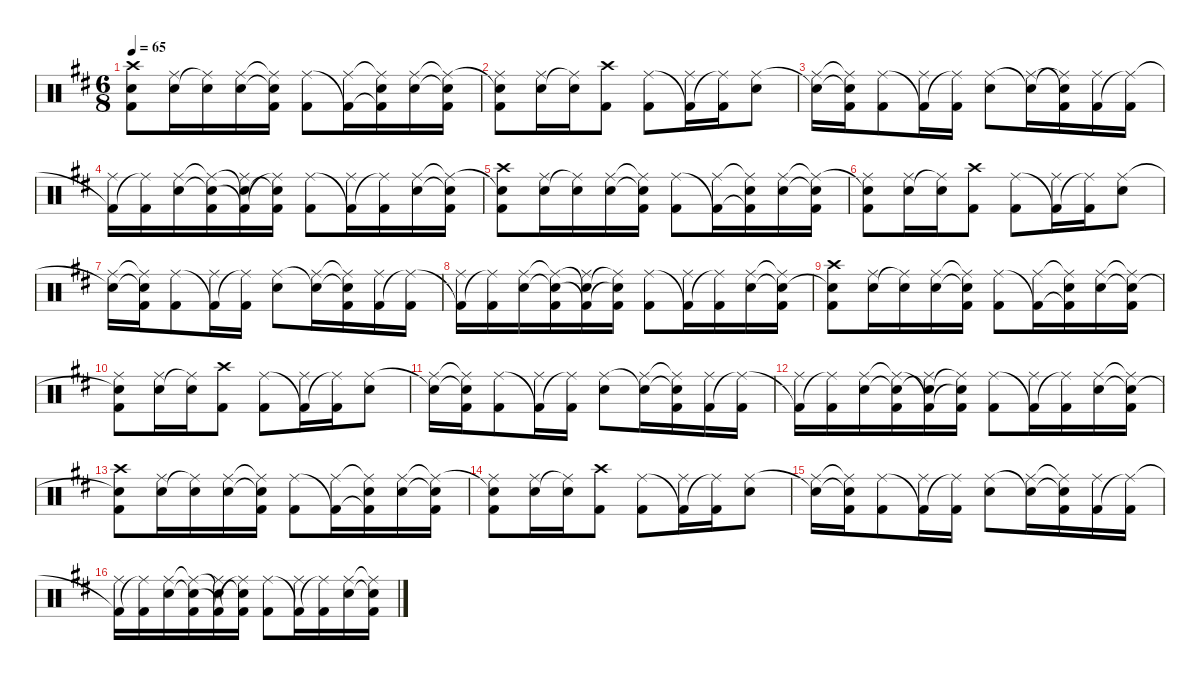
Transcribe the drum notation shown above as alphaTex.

\hideDynamics
\bracketExtendMode nobrackets
\singleTrackTrackNamePolicy hidden
\multiTrackTrackNamePolicy hidden
\firstSystemTrackNameMode fullname
\firstSystemTrackNameOrientation horizontal
\otherSystemsTrackNameOrientation horizontal
\track ("Drums" "drm.") {instrument percussion}
\staff {score}
\articulation defaults
\ts (6 8)
\tempo 65
\clef neutral
\ks bminor
("Snare (hit) 2"{t acc forcenatural} "Kick (hit) 2"{acc forcenatural} "Crash high (hit)"{acc #}).8{dy ff beam Down} ("Snare (hit) 2"{acc forcenatural} "Ride (middle)"{acc #}).16{beam Down} ("Ride (middle)"{t acc #} "Snare (hit) 2"{acc forcenatural}).16{beam Down} ("Snare (hit) 2"{acc forcenatural} "Ride (middle)"{acc #}).16{beam Down} ("Snare (hit) 2"{t acc forcenatural} "Ride (middle)"{t acc #} "Kick (hit) 2"{acc forcenatural}).16{beam Down} ("Ride (middle)"{acc #} "Kick (hit) 2"{acc forcenatural}).8{beam Down} ("Kick (hit) 2"{t acc forcenatural} "Ride (middle)"{acc #}).16{beam Down} ("Kick (hit) 2"{t acc forcenatural} "Ride (middle)"{t acc #} "Snare (hit) 2"{acc forcenatural}).16{beam Down} ("Ride (middle)"{acc #} "Snare (hit) 2"{acc forcenatural}).16{beam Down} ("Ride (middle)"{t acc #} "Snare (hit) 2"{t acc forcenatural} "Kick (hit) 2"{acc forcenatural}).16{beam Down} |
("Snare (hit) 2"{t acc forcenatural} "Kick (hit) 2"{acc forcenatural} "Ride (middle)"{acc #}).8{beam Down} ("Snare (hit) 2"{acc forcenatural} "Ride (middle)"{acc #}).16{beam Down} ("Ride (middle)"{t acc #} "Snare (hit) 2"{acc forcenatural}).16{beam Down} ("Kick (hit) 2"{acc forcenatural} "Crash high (hit)"{acc #}).8{beam Down} ("Ride (middle)"{acc #} "Kick (hit) 2"{acc forcenatural}).8{beam Down} ("Kick (hit) 2"{t acc forcenatural} "Ride (middle)"{acc #}).16{beam Down} ("Ride (middle)"{t acc #} "Kick (hit) 2"{acc forcenatural}).16{beam Down} ("Ride (middle)"{acc #} "Snare (hit) 2"{acc forcenatural}).8{beam Down} |
("Snare (hit) 2"{t acc forcenatural} "Ride (middle)"{acc #}).16{beam Down} ("Snare (hit) 2"{t acc forcenatural} "Ride (middle)"{t acc #} "Kick (hit) 2"{acc forcenatural}).16{beam Down} ("Ride (middle)"{acc #} "Kick (hit) 2"{acc forcenatural}).8{beam Down} ("Kick (hit) 2"{t acc forcenatural} "Ride (middle)"{acc #}).16{beam Down} ("Ride (middle)"{t acc #} "Kick (hit) 2"{acc forcenatural}).16{beam Down} ("Ride (middle)"{acc #} "Snare (hit) 2"{acc forcenatural}).8{beam Down} ("Snare (hit) 2"{t acc forcenatural} "Ride (middle)"{acc #}).16{beam Down} ("Ride (middle)"{t acc #} "Snare (hit) 2"{t acc forcenatural} "Kick (hit) 2"{acc forcenatural}).16{beam Down} ("Kick (hit) 2"{acc forcenatural} "Ride (middle)"{acc #}).16{beam Down} ("Ride (middle)"{t acc #} "Kick (hit) 2"{acc forcenatural}).16{beam Down} |
("Kick (hit) 2"{t acc forcenatural} "Ride (middle)"{acc #}).16{beam Down} ("Ride (middle)"{t acc #} "Kick (hit) 2"{acc forcenatural}).16{beam Down} ("Ride (middle)"{acc #} "Snare (hit) 2"{acc forcenatural}).16{beam Down} ("Ride (middle)"{t acc #} "Snare (hit) 2"{t acc forcenatural} "Kick (hit) 2"{acc forcenatural}).16{beam Down} ("Snare (hit) 2"{t acc forcenatural} "Kick (hit) 2"{t acc forcenatural} "Ride (middle)"{acc #}).16{beam Down} ("Snare (hit) 2"{t acc forcenatural} "Ride (middle)"{t acc #} "Kick (hit) 2"{acc forcenatural}).16{beam Down} ("Ride (middle)"{acc #} "Kick (hit) 2"{acc forcenatural}).8{beam Down} ("Kick (hit) 2"{t acc forcenatural} "Ride (middle)"{acc #}).16{beam Down} ("Ride (middle)"{t acc #} "Kick (hit) 2"{acc forcenatural}).16{beam Down} ("Ride (middle)"{acc #} "Snare (hit) 2"{acc forcenatural}).16{beam Down} ("Ride (middle)"{t acc #} "Snare (hit) 2"{t acc forcenatural} "Kick (hit) 2"{acc forcenatural}).16{beam Down} |
("Snare (hit) 2"{t acc forcenatural} "Kick (hit) 2"{acc forcenatural} "Crash high (hit)"{acc #}).8{beam Down} ("Snare (hit) 2"{acc forcenatural} "Ride (middle)"{acc #}).16{beam Down} ("Ride (middle)"{t acc #} "Snare (hit) 2"{acc forcenatural}).16{beam Down} ("Snare (hit) 2"{acc forcenatural} "Ride (middle)"{acc #}).16{beam Down} ("Snare (hit) 2"{t acc forcenatural} "Ride (middle)"{t acc #} "Kick (hit) 2"{acc forcenatural}).16{beam Down} ("Ride (middle)"{acc #} "Kick (hit) 2"{acc forcenatural}).8{beam Down} ("Kick (hit) 2"{t acc forcenatural} "Ride (middle)"{acc #}).16{beam Down} ("Kick (hit) 2"{t acc forcenatural} "Ride (middle)"{t acc #} "Snare (hit) 2"{acc forcenatural}).16{beam Down} ("Ride (middle)"{acc #} "Snare (hit) 2"{acc forcenatural}).16{beam Down} ("Ride (middle)"{t acc #} "Snare (hit) 2"{t acc forcenatural} "Kick (hit) 2"{acc forcenatural}).16{beam Down} |
("Snare (hit) 2"{t acc forcenatural} "Kick (hit) 2"{acc forcenatural} "Ride (middle)"{acc #}).8{beam Down} ("Snare (hit) 2"{acc forcenatural} "Ride (middle)"{acc #}).16{beam Down} ("Ride (middle)"{t acc #} "Snare (hit) 2"{acc forcenatural}).16{beam Down} ("Kick (hit) 2"{acc forcenatural} "Crash high (hit)"{acc #}).8{beam Down} ("Ride (middle)"{acc #} "Kick (hit) 2"{acc forcenatural}).8{beam Down} ("Kick (hit) 2"{t acc forcenatural} "Ride (middle)"{acc #}).16{beam Down} ("Ride (middle)"{t acc #} "Kick (hit) 2"{acc forcenatural}).16{beam Down} ("Ride (middle)"{acc #} "Snare (hit) 2"{acc forcenatural}).8{beam Down} |
("Snare (hit) 2"{t acc forcenatural} "Ride (middle)"{acc #}).16{beam Down} ("Snare (hit) 2"{t acc forcenatural} "Ride (middle)"{t acc #} "Kick (hit) 2"{acc forcenatural}).16{beam Down} ("Ride (middle)"{acc #} "Kick (hit) 2"{acc forcenatural}).8{beam Down} ("Kick (hit) 2"{t acc forcenatural} "Ride (middle)"{acc #}).16{beam Down} ("Ride (middle)"{t acc #} "Kick (hit) 2"{acc forcenatural}).16{beam Down} ("Ride (middle)"{acc #} "Snare (hit) 2"{acc forcenatural}).8{beam Down} ("Snare (hit) 2"{t acc forcenatural} "Ride (middle)"{acc #}).16{beam Down} ("Snare (hit) 2"{t acc forcenatural} "Ride (middle)"{t acc #} "Kick (hit) 2"{acc forcenatural}).16{beam Down} ("Kick (hit) 2"{acc forcenatural} "Ride (middle)"{acc #}).16{beam Down} ("Ride (middle)"{t acc #} "Kick (hit) 2"{acc forcenatural}).16{beam Down} |
("Kick (hit) 2"{t acc forcenatural} "Ride (middle)"{acc #}).16{beam Down} ("Ride (middle)"{t acc #} "Kick (hit) 2"{acc forcenatural}).16{beam Down} ("Ride (middle)"{acc #} "Snare (hit) 2"{acc forcenatural}).16{beam Down} ("Ride (middle)"{t acc #} "Snare (hit) 2"{t acc forcenatural} "Kick (hit) 2"{acc forcenatural}).16{beam Down} ("Snare (hit) 2"{t acc forcenatural} "Kick (hit) 2"{t acc forcenatural} "Ride (middle)"{acc #}).16{beam Down} ("Ride (middle)"{t acc #} "Snare (hit) 2"{t acc forcenatural} "Kick (hit) 2"{acc forcenatural}).16{beam Down} ("Ride (middle)"{acc #} "Kick (hit) 2"{acc forcenatural}).8{beam Down} ("Kick (hit) 2"{t acc forcenatural} "Ride (middle)"{acc #}).16{beam Down} ("Ride (middle)"{t acc #} "Kick (hit) 2"{acc forcenatural}).16{beam Down} ("Ride (middle)"{acc #} "Snare (hit) 2"{acc forcenatural}).16{beam Down} ("Ride (middle)"{t acc #} "Snare (hit) 2"{t acc forcenatural} "Kick (hit) 2"{acc forcenatural}).16{beam Down} |
("Kick (hit) 2"{acc forcenatural} "Snare (hit) 2"{t acc forcenatural} "Crash high (hit)"{acc #}).8{beam Down} ("Snare (hit) 2"{acc forcenatural} "Ride (middle)"{acc #}).16{beam Down} ("Ride (middle)"{t acc #} "Snare (hit) 2"{acc forcenatural}).16{beam Down} ("Snare (hit) 2"{acc forcenatural} "Ride (middle)"{acc #}).16{beam Down} ("Snare (hit) 2"{t acc forcenatural} "Ride (middle)"{t acc #} "Kick (hit) 2"{acc forcenatural}).16{beam Down} ("Ride (middle)"{acc #} "Kick (hit) 2"{acc forcenatural}).8{beam Down} ("Kick (hit) 2"{t acc forcenatural} "Ride (middle)"{acc #}).16{beam Down} ("Kick (hit) 2"{t acc forcenatural} "Ride (middle)"{t acc #} "Snare (hit) 2"{acc forcenatural}).16{beam Down} ("Ride (middle)"{acc #} "Snare (hit) 2"{acc forcenatural}).16{beam Down} ("Ride (middle)"{t acc #} "Snare (hit) 2"{t acc forcenatural} "Kick (hit) 2"{acc forcenatural}).16{beam Down} |
("Kick (hit) 2"{acc forcenatural} "Snare (hit) 2"{t acc forcenatural} "Ride (middle)"{acc #}).8{beam Down} ("Snare (hit) 2"{acc forcenatural} "Ride (middle)"{acc #}).16{beam Down} ("Ride (middle)"{t acc #} "Snare (hit) 2"{acc forcenatural}).16{beam Down} ("Kick (hit) 2"{acc forcenatural} "Crash high (hit)"{acc #}).8{beam Down} ("Ride (middle)"{acc #} "Kick (hit) 2"{acc forcenatural}).8{beam Down} ("Kick (hit) 2"{t acc forcenatural} "Ride (middle)"{acc #}).16{beam Down} ("Ride (middle)"{t acc #} "Kick (hit) 2"{acc forcenatural}).16{beam Down} ("Ride (middle)"{acc #} "Snare (hit) 2"{acc forcenatural}).8{beam Down} |
("Snare (hit) 2"{t acc forcenatural} "Ride (middle)"{acc #}).16{beam Down} ("Snare (hit) 2"{t acc forcenatural} "Ride (middle)"{t acc #} "Kick (hit) 2"{acc forcenatural}).16{beam Down} ("Ride (middle)"{acc #} "Kick (hit) 2"{acc forcenatural}).8{beam Down} ("Kick (hit) 2"{t acc forcenatural} "Ride (middle)"{acc #}).16{beam Down} ("Ride (middle)"{t acc #} "Kick (hit) 2"{acc forcenatural}).16{beam Down} ("Ride (middle)"{acc #} "Snare (hit) 2"{acc forcenatural}).8{beam Down} ("Snare (hit) 2"{t acc forcenatural} "Ride (middle)"{acc #}).16{beam Down} ("Snare (hit) 2"{t acc forcenatural} "Ride (middle)"{t acc #} "Kick (hit) 2"{acc forcenatural}).16{beam Down} ("Kick (hit) 2"{acc forcenatural} "Ride (middle)"{acc #}).16{beam Down} ("Ride (middle)"{t acc #} "Kick (hit) 2"{acc forcenatural}).16{beam Down} |
("Kick (hit) 2"{t acc forcenatural} "Ride (middle)"{acc #}).16{beam Down} ("Ride (middle)"{t acc #} "Kick (hit) 2"{acc forcenatural}).16{beam Down} ("Ride (middle)"{acc #} "Snare (hit) 2"{acc forcenatural}).16{beam Down} ("Ride (middle)"{t acc #} "Snare (hit) 2"{t acc forcenatural} "Kick (hit) 2"{acc forcenatural}).16{beam Down} ("Kick (hit) 2"{t acc forcenatural} "Snare (hit) 2"{t acc forcenatural} "Ride (middle)"{acc #}).16{beam Down} ("Snare (hit) 2"{t acc forcenatural} "Ride (middle)"{t acc #} "Kick (hit) 2"{acc forcenatural}).16{beam Down} ("Ride (middle)"{acc #} "Kick (hit) 2"{acc forcenatural}).8{beam Down} ("Kick (hit) 2"{t acc forcenatural} "Ride (middle)"{acc #}).16{beam Down} ("Ride (middle)"{t acc #} "Kick (hit) 2"{acc forcenatural}).16{beam Down} ("Ride (middle)"{acc #} "Snare (hit) 2"{acc forcenatural}).16{beam Down} ("Ride (middle)"{t acc #} "Snare (hit) 2"{t acc forcenatural} "Kick (hit) 2"{acc forcenatural}).16{beam Down} |
("Kick (hit) 2"{acc forcenatural} "Snare (hit) 2"{t acc forcenatural} "Crash high (hit)"{acc #}).8{beam Down} ("Snare (hit) 2"{acc forcenatural} "Ride (middle)"{acc #}).16{beam Down} ("Ride (middle)"{t acc #} "Snare (hit) 2"{acc forcenatural}).16{beam Down} ("Snare (hit) 2"{acc forcenatural} "Ride (middle)"{acc #}).16{beam Down} ("Snare (hit) 2"{t acc forcenatural} "Ride (middle)"{t acc #} "Kick (hit) 2"{acc forcenatural}).16{beam Down} ("Ride (middle)"{acc #} "Kick (hit) 2"{acc forcenatural}).8{beam Down} ("Kick (hit) 2"{t acc forcenatural} "Ride (middle)"{acc #}).16{beam Down} ("Kick (hit) 2"{t acc forcenatural} "Ride (middle)"{t acc #} "Snare (hit) 2"{acc forcenatural}).16{beam Down} ("Ride (middle)"{acc #} "Snare (hit) 2"{acc forcenatural}).16{beam Down} ("Ride (middle)"{t acc #} "Snare (hit) 2"{t acc forcenatural} "Kick (hit) 2"{acc forcenatural}).16{beam Down} |
("Snare (hit) 2"{t acc forcenatural} "Kick (hit) 2"{acc forcenatural} "Ride (middle)"{acc #}).8{beam Down} ("Snare (hit) 2"{acc forcenatural} "Ride (middle)"{acc #}).16{beam Down} ("Ride (middle)"{t acc #} "Snare (hit) 2"{acc forcenatural}).16{beam Down} ("Kick (hit) 2"{acc forcenatural} "Crash high (hit)"{acc #}).8{beam Down} ("Ride (middle)"{acc #} "Kick (hit) 2"{acc forcenatural}).8{beam Down} ("Kick (hit) 2"{t acc forcenatural} "Ride (middle)"{acc #}).16{beam Down} ("Ride (middle)"{t acc #} "Kick (hit) 2"{acc forcenatural}).16{beam Down} ("Ride (middle)"{acc #} "Snare (hit) 2"{acc forcenatural}).8{beam Down} |
("Snare (hit) 2"{t acc forcenatural} "Ride (middle)"{acc #}).16{beam Down} ("Snare (hit) 2"{t acc forcenatural} "Ride (middle)"{t acc #} "Kick (hit) 2"{acc forcenatural}).16{beam Down} ("Ride (middle)"{acc #} "Kick (hit) 2"{acc forcenatural}).8{beam Down} ("Kick (hit) 2"{t acc forcenatural} "Ride (middle)"{acc #}).16{beam Down} ("Ride (middle)"{t acc #} "Kick (hit) 2"{acc forcenatural}).16{beam Down} ("Ride (middle)"{acc #} "Snare (hit) 2"{acc forcenatural}).8{beam Down} ("Snare (hit) 2"{t acc forcenatural} "Ride (middle)"{acc #}).16{beam Down} ("Snare (hit) 2"{t acc forcenatural} "Ride (middle)"{t acc #} "Kick (hit) 2"{acc forcenatural}).16{beam Down} ("Kick (hit) 2"{acc forcenatural} "Ride (middle)"{acc #}).16{beam Down} ("Ride (middle)"{t acc #} "Kick (hit) 2"{acc forcenatural}).16{beam Down} |
("Kick (hit) 2"{t acc forcenatural} "Ride (middle)"{acc #}).16{beam Down} ("Ride (middle)"{t acc #} "Kick (hit) 2"{acc forcenatural}).16{beam Down} ("Ride (middle)"{acc #} "Snare (hit) 2"{acc forcenatural}).16{beam Down} ("Ride (middle)"{t acc #} "Snare (hit) 2"{t acc forcenatural} "Kick (hit) 2"{acc forcenatural}).16{beam Down} ("Snare (hit) 2"{t acc forcenatural} "Kick (hit) 2"{t acc forcenatural} "Ride (middle)"{acc #}).16{beam Down} ("Snare (hit) 2"{t acc forcenatural} "Ride (middle)"{t acc #} "Kick (hit) 2"{acc forcenatural}).16{beam Down} ("Ride (middle)"{acc #} "Kick (hit) 2"{acc forcenatural}).8{beam Down} ("Kick (hit) 2"{t acc forcenatural} "Ride (middle)"{acc #}).16{beam Down} ("Ride (middle)"{t acc #} "Kick (hit) 2"{acc forcenatural}).16{beam Down} ("Ride (middle)"{acc #} "Snare (hit) 2"{acc forcenatural}).16{beam Down} ("Ride (middle)"{t acc #} "Snare (hit) 2"{t acc forcenatural} "Kick (hit) 2"{acc forcenatural}).16{beam Down}
